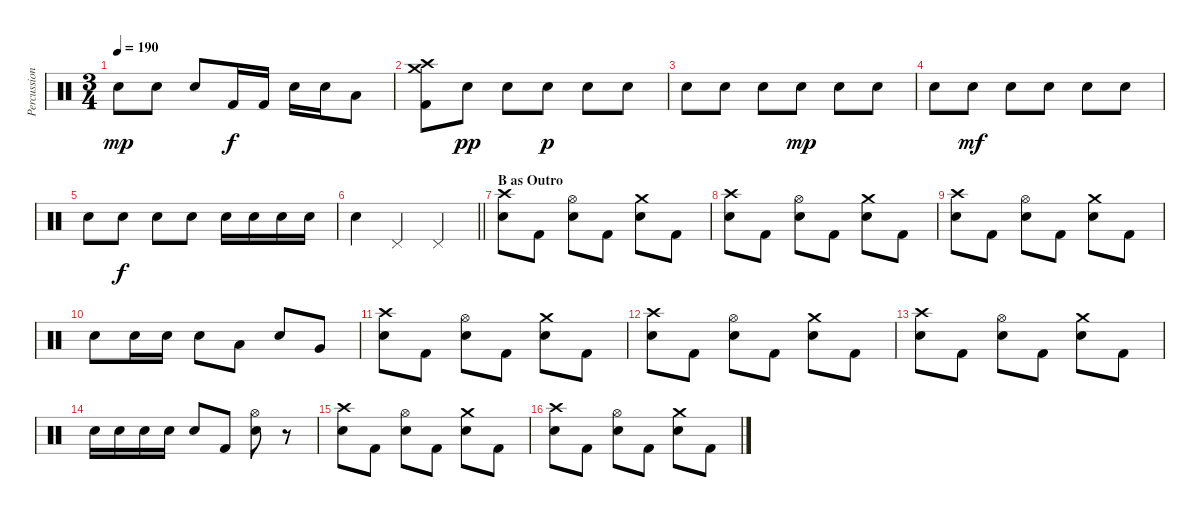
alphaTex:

\track ("Percussion" "Percussion") {instrument percussion}
\staff {score}
\articulation defaults
\ts (3 4)
\tempo 190
\clef neutral
\ks c "Electric Snare (hit)".8{dy mp} "Electric Snare (hit)".8 "Electric Snare (hit)".8 "Kick (hit) 2".16{dy f} "Kick (hit) 2".16 "Electric Snare (hit)".16 "Electric Snare (hit)".16 "Low Floor Tom (hit)".8
|
("Crash medium (hit)" "Crash high (hit)" "Kick (hit) 2").8 "Electric Snare (hit)".8{dy pp} "Electric Snare (hit)".8 "Electric Snare (hit)".8{dy p} "Electric Snare (hit)".8 "Electric Snare (hit)".8 |
"Electric Snare (hit)".8 "Electric Snare (hit)".8 "Electric Snare (hit)".8 "Electric Snare (hit)".8{dy mp} "Electric Snare (hit)".8 "Electric Snare (hit)".8 |
"Electric Snare (hit)".8 "Electric Snare (hit)".8{dy mf} "Electric Snare (hit)".8 "Electric Snare (hit)".8 "Electric Snare (hit)".8 "Electric Snare (hit)".8 |
"Electric Snare (hit)".8 "Electric Snare (hit)".8{dy f} "Electric Snare (hit)".8 "Electric Snare (hit)".8 "Electric Snare (hit)".16 "Electric Snare (hit)".16 "Electric Snare (hit)".16 "Electric Snare (hit)".16 |
\barLineRight lightlight "Electric Snare (hit)".4 "Pedal Hi-Hat (hit)".4 "Pedal Hi-Hat (hit)".4
|
\section ("" "B as Outro")
("Crash high (hit)" "Electric Snare (hit)").8 "Kick (hit) 2".8 ("Hi-Hat (open)" "Electric Snare (hit)").8 "Kick (hit) 2".8 ("Crash medium (hit)" "Electric Snare (hit)").8 "Kick (hit) 2".8 |
("Crash high (hit)" "Electric Snare (hit)").8 "Kick (hit) 2".8 ("Hi-Hat (open)" "Electric Snare (hit)").8 "Kick (hit) 2".8 ("Crash medium (hit)" "Electric Snare (hit)").8 "Kick (hit) 2".8 |
("Crash high (hit)" "Electric Snare (hit)").8 "Kick (hit) 2".8 ("Hi-Hat (open)" "Electric Snare (hit)").8 "Kick (hit) 2".8 ("Crash medium (hit)" "Electric Snare (hit)").8 "Kick (hit) 2".8 |
"Electric Snare (hit)".8 "Electric Snare (hit)".16 "Electric Snare (hit)".16 "Electric Snare (hit)".8 "Low Tom (hit)".8 "Electric Snare (hit)".8 "Very Low Tom (hit)".8 |
("Crash high (hit)" "Electric Snare (hit)").8 "Kick (hit) 2".8 ("Hi-Hat (open)" "Electric Snare (hit)").8 "Kick (hit) 2".8 ("Crash medium (hit)" "Electric Snare (hit)").8 "Kick (hit) 2".8 |
("Crash high (hit)" "Electric Snare (hit)").8 "Kick (hit) 2".8 ("Hi-Hat (open)" "Electric Snare (hit)").8 "Kick (hit) 2".8 ("Crash medium (hit)" "Electric Snare (hit)").8 "Kick (hit) 2".8 |
("Crash high (hit)" "Electric Snare (hit)").8 "Kick (hit) 2".8 ("Hi-Hat (open)" "Electric Snare (hit)").8 "Kick (hit) 2".8 ("Crash medium (hit)" "Electric Snare (hit)").8 "Kick (hit) 2".8 |
"Electric Snare (hit)".16 "Electric Snare (hit)".16 "Electric Snare (hit)".16 "Electric Snare (hit)".16 "Electric Snare (hit)".8 "Kick (hit) 2".8 ("Hi-Hat (open)" "Electric Snare (hit)").8 r.8 |
("Crash high (hit)" "Electric Snare (hit)").8 "Kick (hit) 2".8 ("Hi-Hat (open)" "Electric Snare (hit)").8 "Kick (hit) 2".8 ("Crash medium (hit)" "Electric Snare (hit)").8 "Kick (hit) 2".8 |
("Crash high (hit)" "Electric Snare (hit)").8 "Kick (hit) 2".8 ("Hi-Hat (open)" "Electric Snare (hit)").8 "Kick (hit) 2".8 ("Crash medium (hit)" "Electric Snare (hit)").8 "Kick (hit) 2".8
